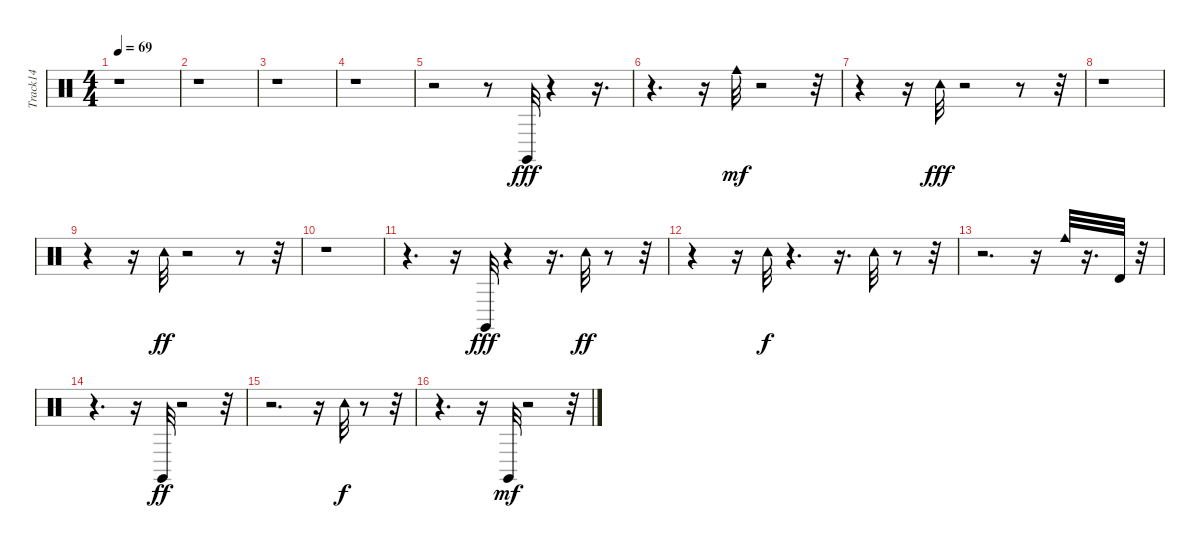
\track ("Track14" "Track14") {instrument percussion}
\staff {score}
\articulation defaults
\ts (4 4)
\tempo 69
\clef neutral
\ks c
r.1{dy fff} |
r.1 |
r.1 |
r.1 |
r.2 r.8 "Claves (hit)".32 r.4 r.16{d} |
r.4{d} r.16 "Cowbell medium (hit)".32{dy mf} r.2 r.32 |
r.4 r.16 "Tambourine (hit)".32{dy fff} r.2 r.8 r.32 |
r.1 |
r.4 r.16 "Tambourine (hit)".32{dy ff} r.2 r.8 r.32 |
r.1 |
r.4{d} r.16 "Claves (hit)".32{dy fff} r.4 r.16{d} "Tambourine (hit)".32{dy ff} r.8 r.32 |
r.4 r.16 "Tambourine (hit)".32{dy f} r.4{d} r.16{d} "Tambourine (hit)".32 r.8 r.32 |
r.2{d} r.16 "Cowbell medium (hit)".32 r.16{d} "Timbale high (hit)".32 r.32 |
r.4{d} r.16 "Claves (hit)".32{dy ff} r.2 r.32 |
r.2{d} r.16 "Tambourine (hit)".32{dy f} r.8 r.32 |
r.4{d} r.16 "Claves (hit)".32{dy mf} r.2 r.32
